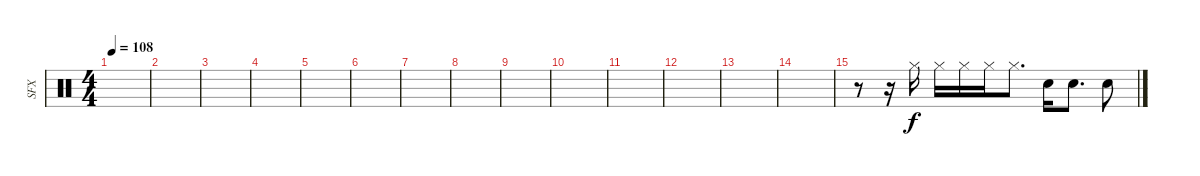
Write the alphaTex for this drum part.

\track ("SFX" "SFX") {instrument percussion}
\staff {score}
\articulation defaults
\ts (4 4)
\tempo 108
\clef neutral
\ks c
|
|
|
|
|
|
|
|
|
|
|
|
|
|
r.8 r.16 "Hi-Hat (closed)".16 "Hi-Hat (closed)".16 "Hi-Hat (closed)".16 "Hi-Hat (closed)".16 "Hi-Hat (closed)".8{d} "Hand Clap (hit)".16 "Hand Clap (hit)".8{d} "Hand Clap (hit)".8
